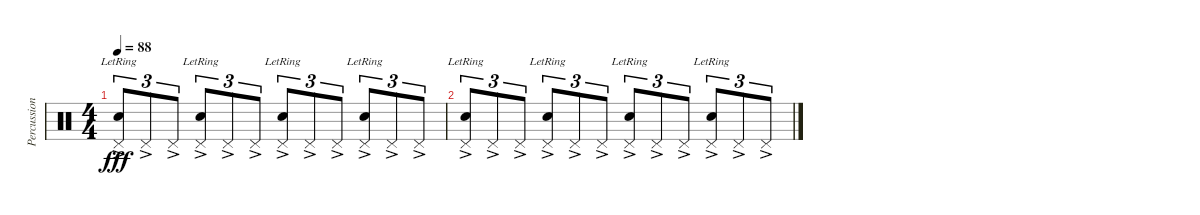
\track ("Percussions" "Percussion") {instrument percussion}
\staff {score}
\articulation defaults
\ts (4 4)
\tempo 88
\clef neutral
\ks c
("Pedal Hi-Hat (hit)"{ac} "Snare (hit) 2"{ac lr}).8{tu (3 2) dy fff} "Pedal Hi-Hat (hit)"{ac}.8{tu (3 2)} "Pedal Hi-Hat (hit)"{ac}.8{tu (3 2)} ("Pedal Hi-Hat (hit)" "Snare (hit) 2"{ac lr}).8{tu (3 2)} "Pedal Hi-Hat (hit)"{ac}.8{tu (3 2)} "Pedal Hi-Hat (hit)"{ac}.8{tu (3 2)} ("Pedal Hi-Hat (hit)" "Snare (hit) 2"{ac lr}).8{tu (3 2)} "Pedal Hi-Hat (hit)"{ac}.8{tu (3 2)} "Pedal Hi-Hat (hit)"{ac}.8{tu (3 2)} ("Pedal Hi-Hat (hit)" "Snare (hit) 2"{ac lr}).8{tu (3 2)} "Pedal Hi-Hat (hit)"{ac}.8{tu (3 2)} "Pedal Hi-Hat (hit)"{ac}.8{tu (3 2)} |
("Pedal Hi-Hat (hit)"{ac} "Snare (hit) 2"{ac lr}).8{tu (3 2)} "Pedal Hi-Hat (hit)"{ac}.8{tu (3 2)} "Pedal Hi-Hat (hit)"{ac}.8{tu (3 2)} ("Pedal Hi-Hat (hit)" "Snare (hit) 2"{ac lr}).8{tu (3 2)} "Pedal Hi-Hat (hit)"{ac}.8{tu (3 2)} "Pedal Hi-Hat (hit)"{ac}.8{tu (3 2)} ("Pedal Hi-Hat (hit)" "Snare (hit) 2"{ac lr}).8{tu (3 2)} "Pedal Hi-Hat (hit)"{ac}.8{tu (3 2)} "Pedal Hi-Hat (hit)"{ac}.8{tu (3 2)} ("Pedal Hi-Hat (hit)" "Snare (hit) 2"{ac lr}).8{tu (3 2)} "Pedal Hi-Hat (hit)"{ac}.8{tu (3 2)} "Pedal Hi-Hat (hit)"{ac}.8{tu (3 2)}
